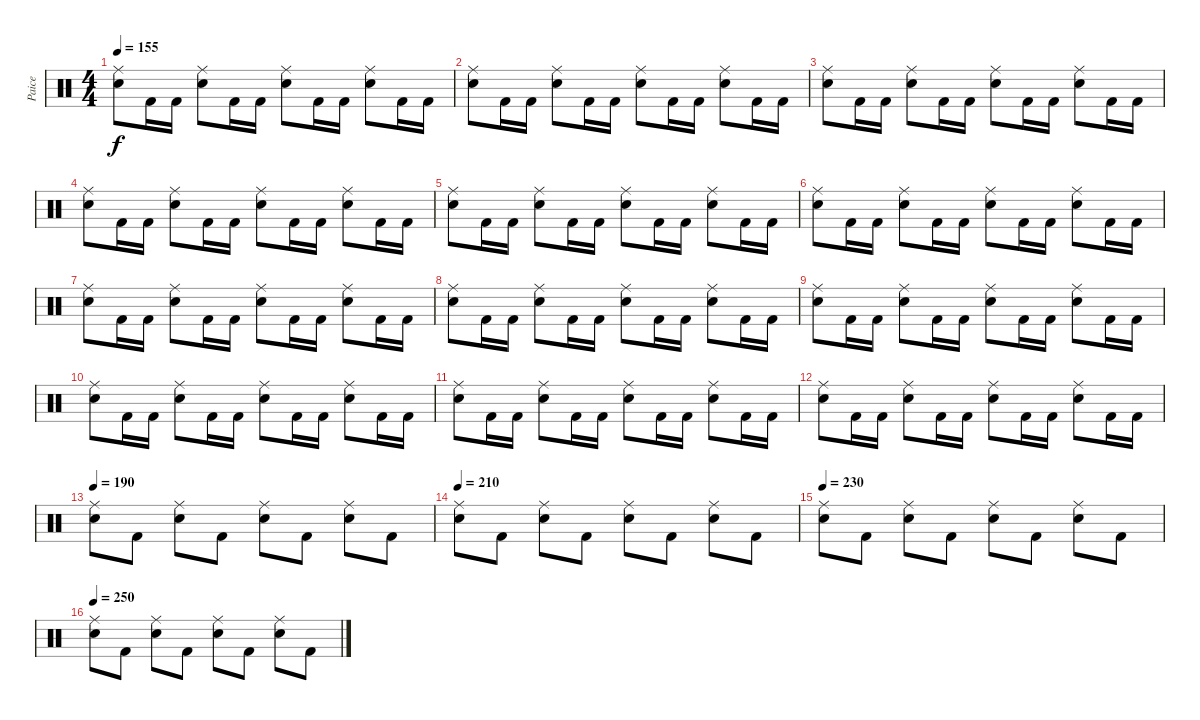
\track ("Paice" "Paice") {instrument percussion}
\staff {score}
\articulation defaults
\ts (4 4)
\tempo 155
\clef neutral
\ks c
("Ride (middle)" "Snare (hit) 2").8{dy f} "Kick (hit) 2".16 "Kick (hit) 2".16 ("Ride (middle)" "Snare (hit) 2").8 "Kick (hit) 2".16 "Kick (hit) 2".16 ("Ride (middle)" "Snare (hit) 2").8 "Kick (hit) 2".16 "Kick (hit) 2".16 ("Ride (middle)" "Snare (hit) 2").8 "Kick (hit) 2".16 "Kick (hit) 2".16 |
("Ride (middle)" "Snare (hit) 2").8 "Kick (hit) 2".16 "Kick (hit) 2".16 ("Ride (middle)" "Snare (hit) 2").8 "Kick (hit) 2".16 "Kick (hit) 2".16 ("Ride (middle)" "Snare (hit) 2").8 "Kick (hit) 2".16 "Kick (hit) 2".16 ("Ride (middle)" "Snare (hit) 2").8 "Kick (hit) 2".16 "Kick (hit) 2".16 |
("Ride (middle)" "Snare (hit) 2").8 "Kick (hit) 2".16 "Kick (hit) 2".16 ("Ride (middle)" "Snare (hit) 2").8 "Kick (hit) 2".16 "Kick (hit) 2".16 ("Ride (middle)" "Snare (hit) 2").8 "Kick (hit) 2".16 "Kick (hit) 2".16 ("Ride (middle)" "Snare (hit) 2").8 "Kick (hit) 2".16 "Kick (hit) 2".16 |
("Ride (middle)" "Snare (hit) 2").8 "Kick (hit) 2".16 "Kick (hit) 2".16 ("Ride (middle)" "Snare (hit) 2").8 "Kick (hit) 2".16 "Kick (hit) 2".16 ("Ride (middle)" "Snare (hit) 2").8 "Kick (hit) 2".16 "Kick (hit) 2".16 ("Ride (middle)" "Snare (hit) 2").8 "Kick (hit) 2".16 "Kick (hit) 2".16 |
("Ride (middle)" "Snare (hit) 2").8 "Kick (hit) 2".16 "Kick (hit) 2".16 ("Ride (middle)" "Snare (hit) 2").8 "Kick (hit) 2".16 "Kick (hit) 2".16 ("Ride (middle)" "Snare (hit) 2").8 "Kick (hit) 2".16 "Kick (hit) 2".16 ("Ride (middle)" "Snare (hit) 2").8 "Kick (hit) 2".16 "Kick (hit) 2".16 |
("Ride (middle)" "Snare (hit) 2").8 "Kick (hit) 2".16 "Kick (hit) 2".16 ("Ride (middle)" "Snare (hit) 2").8 "Kick (hit) 2".16 "Kick (hit) 2".16 ("Ride (middle)" "Snare (hit) 2").8 "Kick (hit) 2".16 "Kick (hit) 2".16 ("Ride (middle)" "Snare (hit) 2").8 "Kick (hit) 2".16 "Kick (hit) 2".16 |
("Ride (middle)" "Snare (hit) 2").8 "Kick (hit) 2".16 "Kick (hit) 2".16 ("Ride (middle)" "Snare (hit) 2").8 "Kick (hit) 2".16 "Kick (hit) 2".16 ("Ride (middle)" "Snare (hit) 2").8 "Kick (hit) 2".16 "Kick (hit) 2".16 ("Ride (middle)" "Snare (hit) 2").8 "Kick (hit) 2".16 "Kick (hit) 2".16 |
("Ride (middle)" "Snare (hit) 2").8 "Kick (hit) 2".16 "Kick (hit) 2".16 ("Ride (middle)" "Snare (hit) 2").8 "Kick (hit) 2".16 "Kick (hit) 2".16 ("Ride (middle)" "Snare (hit) 2").8 "Kick (hit) 2".16 "Kick (hit) 2".16 ("Ride (middle)" "Snare (hit) 2").8 "Kick (hit) 2".16 "Kick (hit) 2".16 |
("Ride (middle)" "Snare (hit) 2").8 "Kick (hit) 2".16 "Kick (hit) 2".16 ("Ride (middle)" "Snare (hit) 2").8 "Kick (hit) 2".16 "Kick (hit) 2".16 ("Ride (middle)" "Snare (hit) 2").8 "Kick (hit) 2".16 "Kick (hit) 2".16 ("Ride (middle)" "Snare (hit) 2").8 "Kick (hit) 2".16 "Kick (hit) 2".16 |
("Ride (middle)" "Snare (hit) 2").8 "Kick (hit) 2".16 "Kick (hit) 2".16 ("Ride (middle)" "Snare (hit) 2").8 "Kick (hit) 2".16 "Kick (hit) 2".16 ("Ride (middle)" "Snare (hit) 2").8 "Kick (hit) 2".16 "Kick (hit) 2".16 ("Ride (middle)" "Snare (hit) 2").8 "Kick (hit) 2".16 "Kick (hit) 2".16 |
("Ride (middle)" "Snare (hit) 2").8 "Kick (hit) 2".16 "Kick (hit) 2".16 ("Ride (middle)" "Snare (hit) 2").8 "Kick (hit) 2".16 "Kick (hit) 2".16 ("Ride (middle)" "Snare (hit) 2").8 "Kick (hit) 2".16 "Kick (hit) 2".16 ("Ride (middle)" "Snare (hit) 2").8 "Kick (hit) 2".16 "Kick (hit) 2".16 |
("Ride (middle)" "Snare (hit) 2").8 "Kick (hit) 2".16 "Kick (hit) 2".16 ("Ride (middle)" "Snare (hit) 2").8 "Kick (hit) 2".16 "Kick (hit) 2".16 ("Ride (middle)" "Snare (hit) 2").8 "Kick (hit) 2".16 "Kick (hit) 2".16 ("Ride (middle)" "Snare (hit) 2").8 "Kick (hit) 2".16 "Kick (hit) 2".16 |
\tempo 190
("Ride (middle)" "Snare (hit) 2").8 "Kick (hit) 2".8 ("Ride (middle)" "Snare (hit) 2").8 "Kick (hit) 2".8 ("Ride (middle)" "Snare (hit) 2").8 "Kick (hit) 2".8 ("Ride (middle)" "Snare (hit) 2").8 "Kick (hit) 2".8 |
\tempo 210
("Ride (middle)" "Snare (hit) 2").8 "Kick (hit) 2".8 ("Ride (middle)" "Snare (hit) 2").8 "Kick (hit) 2".8 ("Ride (middle)" "Snare (hit) 2").8 "Kick (hit) 2".8 ("Ride (middle)" "Snare (hit) 2").8 "Kick (hit) 2".8 |
\tempo 230
("Ride (middle)" "Snare (hit) 2").8 "Kick (hit) 2".8 ("Ride (middle)" "Snare (hit) 2").8 "Kick (hit) 2".8 ("Ride (middle)" "Snare (hit) 2").8 "Kick (hit) 2".8 ("Ride (middle)" "Snare (hit) 2").8 "Kick (hit) 2".8 |
\tempo 250
("Ride (middle)" "Snare (hit) 2").8 "Kick (hit) 2".8 ("Ride (middle)" "Snare (hit) 2").8 "Kick (hit) 2".8 ("Ride (middle)" "Snare (hit) 2").8 "Kick (hit) 2".8 ("Ride (middle)" "Snare (hit) 2").8 "Kick (hit) 2".8
